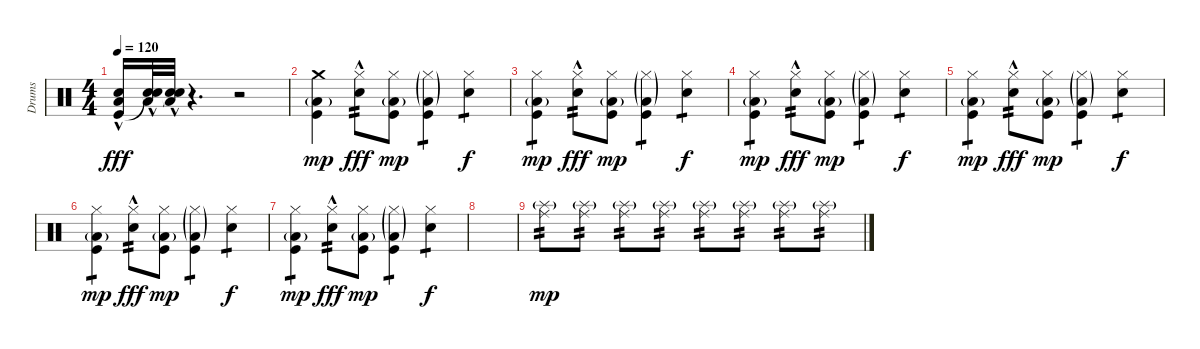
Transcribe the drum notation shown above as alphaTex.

\track ("Drums" "Drums") {instrument percussion}
\staff {score}
\articulation defaults
\ts (4 4)
\tempo 120
\clef neutral
\ks c
("Snare (hit) 2"{hac} "Low Tom (hit)"{hac} "Kick (hit)").16{dy fff} ("Snare (hit) 2"{hac} "Low Tom (hit)"{hac} "Snare (hit)"{t}).32 ("Snare (hit) 2"{hac} "Low Tom (hit)"{hac} "Snare (hit)"{t}).32 r.4{d} r.2 |
("Crash medium (hit)" "Low Tom (hit)"{g} "Kick (hit)").4{dy mp} ("Hi-Hat (closed)" "Snare (hit) 2"{hac}).8{tp 2 dy fff} ("Hi-Hat (closed)" "Low Tom (hit)"{g} "Kick (hit)").8{dy mp} ("Hi-Hat (closed)"{g} "Low Tom (hit)"{g} "Kick (hit)").4{tp 1} ("Hi-Hat (closed)" "Snare (hit) 2").4{tp 1 dy f} |
("Hi-Hat (closed)" "Low Tom (hit)"{g} "Kick (hit)").4{tp 1 dy mp} ("Hi-Hat (closed)" "Snare (hit) 2"{hac}).8{tp 2 dy fff} ("Hi-Hat (closed)" "Low Tom (hit)"{g} "Kick (hit)").8{dy mp} ("Hi-Hat (closed)"{g} "Low Tom (hit)"{g} "Kick (hit)").4{tp 1} ("Hi-Hat (closed)" "Snare (hit) 2").4{tp 1 dy f} |
("Hi-Hat (closed)" "Low Tom (hit)"{g} "Kick (hit)").4{tp 1 dy mp} ("Hi-Hat (closed)" "Snare (hit) 2"{hac}).8{tp 2 dy fff} ("Hi-Hat (closed)" "Low Tom (hit)"{g} "Kick (hit)").8{dy mp} ("Hi-Hat (closed)"{g} "Low Tom (hit)"{g} "Kick (hit)").4{tp 1} ("Hi-Hat (closed)" "Snare (hit) 2").4{tp 1 dy f} |
("Hi-Hat (closed)" "Low Tom (hit)"{g} "Kick (hit)").4{tp 1 dy mp} ("Hi-Hat (closed)" "Snare (hit) 2"{hac}).8{tp 2 dy fff} ("Hi-Hat (closed)" "Low Tom (hit)"{g} "Kick (hit)").8{dy mp} ("Hi-Hat (closed)"{g} "Low Tom (hit)"{g} "Kick (hit)").4{tp 1} ("Hi-Hat (closed)" "Snare (hit) 2").4{tp 1 dy f} |
("Hi-Hat (closed)" "Low Tom (hit)"{g} "Kick (hit)").4{tp 1 dy mp} ("Hi-Hat (closed)" "Snare (hit) 2"{hac}).8{tp 2 dy fff} ("Hi-Hat (closed)" "Low Tom (hit)"{g} "Kick (hit)").8{dy mp} ("Hi-Hat (closed)"{g} "Low Tom (hit)"{g} "Kick (hit)").4{tp 1} ("Hi-Hat (closed)" "Snare (hit) 2").4{tp 1 dy f} |
("Hi-Hat (closed)" "Low Tom (hit)"{g} "Kick (hit)").4{tp 1 dy mp} ("Hi-Hat (closed)" "Snare (hit) 2"{hac}).8{tp 2 dy fff} ("Hi-Hat (closed)" "Low Tom (hit)"{g} "Kick (hit)").8{dy mp} ("Hi-Hat (closed)"{g} "Low Tom (hit)"{g} "Kick (hit)").4{tp 1} ("Hi-Hat (closed)" "Snare (hit) 2").4{tp 1 dy f} |
|
("Ride (middle)" "Splash (hit)"{g}).8{tp 2 dy mp} ("Ride (middle)" "Splash (hit)"{g}).8{tp 2} ("Ride (middle)" "Splash (hit)"{g}).8{tp 2} ("Ride (middle)" "Splash (hit)"{g}).8{tp 2} ("Ride (middle)" "Splash (hit)"{g}).8{tp 2} ("Ride (middle)" "Splash (hit)"{g}).8{tp 2} ("Ride (middle)" "Splash (hit)"{g}).8{tp 2} ("Ride (middle)" "Splash (hit)"{g}).8{tp 2}
